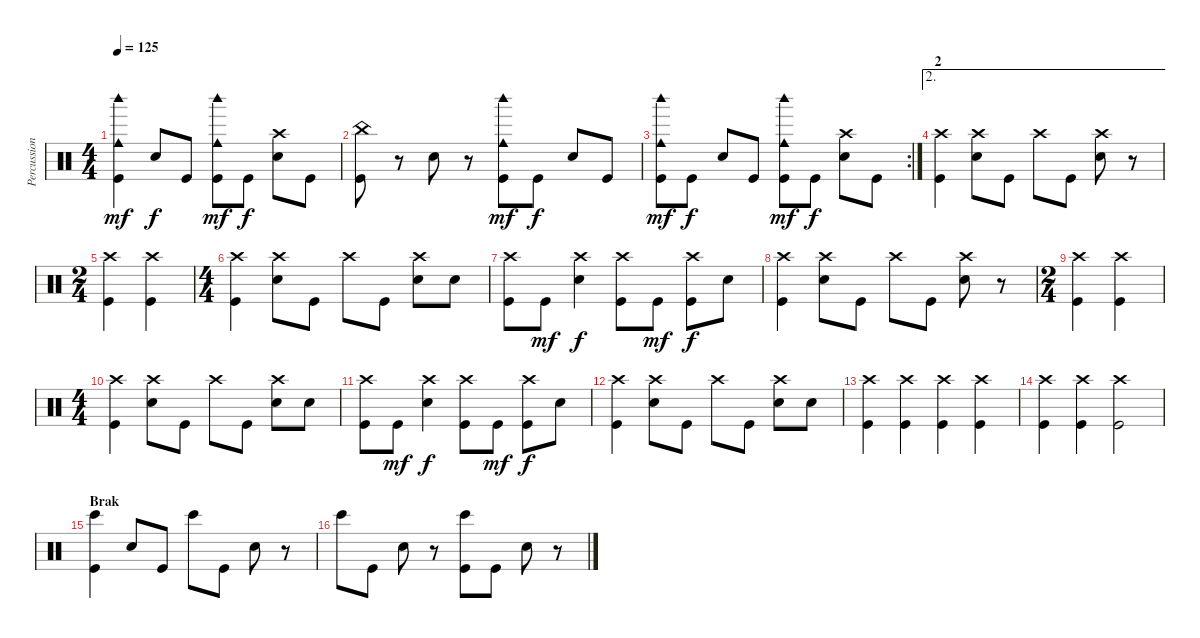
\track ("Percussion" "Percussion") {instrument percussion}
\staff {score}
\articulation defaults
\ts (4 4)
\tempo 125
\clef neutral
\ks c
("Woodblock high (hit)" "Cowbell medium (hit)" "Kick (hit)").4{dy mf} "Snare (hit) 2".8{dy f} "Kick (hit)".8 ("Woodblock high (hit)" "Cowbell medium (hit)" "Kick (hit)").8{dy mf} "Kick (hit)".8{dy f} ("Crash high (hit)" "Snare (hit) 2").8 "Kick (hit)".8 |
("China (hit)" "Kick (hit)").8 r.8 "Snare (hit) 2".8 r.8 ("Woodblock high (hit)" "Cowbell medium (hit)" "Kick (hit)").8{dy mf} "Kick (hit)".8{dy f} "Snare (hit) 2".8 "Kick (hit)".8 |
\rc 2
("Woodblock high (hit)" "Cowbell medium (hit)" "Kick (hit)").8{dy mf} "Kick (hit)".8{dy f} "Snare (hit) 2".8 "Kick (hit)".8 ("Woodblock high (hit)" "Cowbell medium (hit)" "Kick (hit)").8{dy mf} "Kick (hit)".8{dy f} ("Crash high (hit)" "Snare (hit) 2").8 "Kick (hit)".8 |
\ae 2
\section ("" "2")
("Crash high (hit)" "Kick (hit)").4 ("Crash high (hit)" "Snare (hit) 2").8 "Kick (hit)".8 "Crash high (hit)".8 "Kick (hit)".8 ("Crash high (hit)" "Snare (hit) 2").8 r.8 |
\ts (2 4)
("Crash high (hit)" "Kick (hit)").4 ("Crash high (hit)" "Kick (hit)").4 |
\ts (4 4)
("Crash high (hit)" "Kick (hit)").4 ("Crash high (hit)" "Snare (hit) 2").8 "Kick (hit)".8 "Crash high (hit)".8 "Kick (hit)".8 ("Crash high (hit)" "Snare (hit) 2").8 "Snare (hit) 2".8 |
("Crash high (hit)" "Kick (hit)").8 "Kick (hit)".8{dy mf} ("Crash high (hit)" "Snare (hit) 2").4{dy f} ("Crash high (hit)" "Kick (hit)").8 "Kick (hit)".8{dy mf} ("Crash high (hit)" "Kick (hit)").8{dy f} "Snare (hit) 2".8 |
("Crash high (hit)" "Kick (hit)").4 ("Crash high (hit)" "Snare (hit) 2").8 "Kick (hit)".8 "Crash high (hit)".8 "Kick (hit)".8 ("Crash high (hit)" "Snare (hit) 2").8 r.8 |
\ts (2 4)
("Crash high (hit)" "Kick (hit)").4 ("Crash high (hit)" "Kick (hit)").4 |
\ts (4 4)
("Crash high (hit)" "Kick (hit)").4 ("Crash high (hit)" "Snare (hit) 2").8 "Kick (hit)".8 "Crash high (hit)".8 "Kick (hit)".8 ("Crash high (hit)" "Snare (hit) 2").8 "Snare (hit) 2".8 |
("Crash high (hit)" "Kick (hit)").8 "Kick (hit)".8{dy mf} ("Crash high (hit)" "Snare (hit) 2").4{dy f} ("Crash high (hit)" "Kick (hit)").8 "Kick (hit)".8{dy mf} ("Crash high (hit)" "Kick (hit)").8{dy f} "Snare (hit) 2".8 |
("Crash high (hit)" "Kick (hit)").4 ("Crash high (hit)" "Snare (hit) 2").8 "Kick (hit)".8 "Crash high (hit)".8 "Kick (hit)".8 ("Crash high (hit)" "Snare (hit) 2").8 "Snare (hit) 2".8 |
("Crash high (hit)" "Kick (hit)").4 ("Crash high (hit)" "Kick (hit)").4 ("Crash high (hit)" "Kick (hit)").4 ("Crash high (hit)" "Kick (hit)").4 |
("Crash high (hit)" "Kick (hit)").4 ("Crash high (hit)" "Kick (hit)").4 ("Crash high (hit)" "Kick (hit)").2 |
\section ("" "Brak")
("Bongo High (hit)" "Kick (hit)").4 "Snare (hit) 2".8 "Kick (hit)".8 "Bongo High (hit)".8 "Kick (hit)".8 "Snare (hit) 2".8 r.8 |
"Bongo High (hit)".8 "Kick (hit)".8 "Snare (hit) 2".8 r.8 ("Bongo High (hit)" "Kick (hit)").8 "Kick (hit)".8 "Snare (hit) 2".8 r.8
